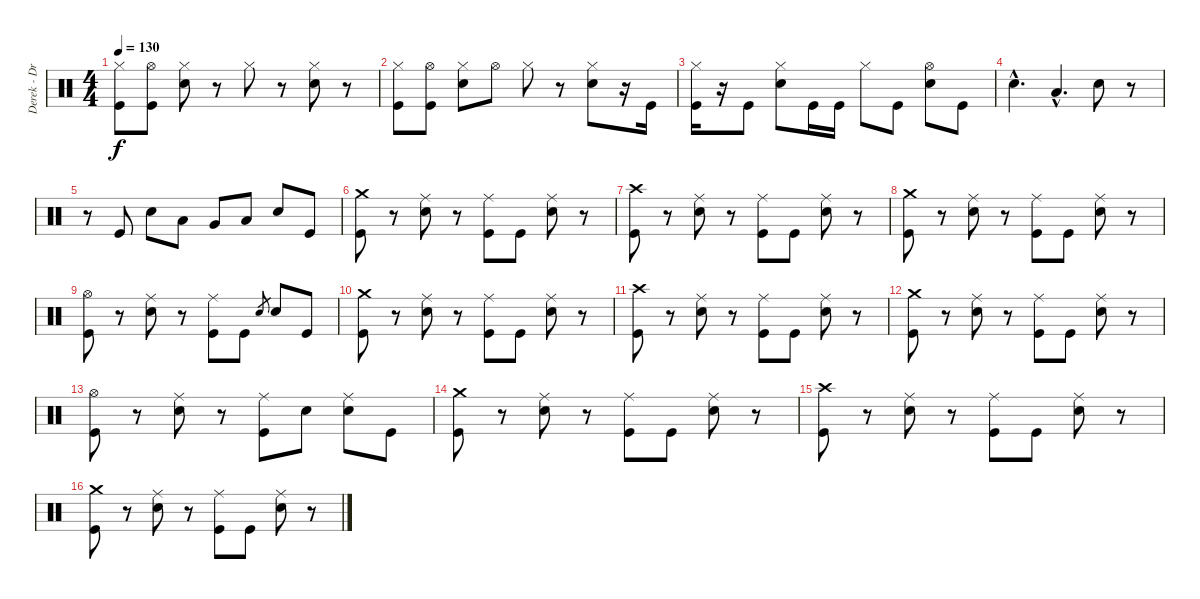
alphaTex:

\track ("Derek - Drums" "Derek - Dr") {instrument percussion}
\staff {score}
\articulation defaults
\ts (4 4)
\tempo 130
\clef neutral
\ks c
("Hi-Hat (closed)" "Kick (hit)").8{dy f} ("Hi-Hat (open)" "Kick (hit)").8 ("Hi-Hat (closed)" "Electric Snare (hit)").8 r.8 "Hi-Hat (closed)".8 r.8 ("Hi-Hat (closed)" "Electric Snare (hit)").8 r.8 |
("Hi-Hat (closed)" "Kick (hit)").8 ("Hi-Hat (open)" "Kick (hit)").8 ("Hi-Hat (closed)" "Electric Snare (hit)").8 "Hi-Hat (open)".8 "Hi-Hat (closed)".8 r.8 ("Hi-Hat (closed)" "Electric Snare (hit)").8 r.16 "Kick (hit)".16 |
("Hi-Hat (closed)" "Kick (hit)").16 r.16 "Kick (hit)".8 ("Hi-Hat (closed)" "Electric Snare (hit)").8 "Kick (hit)".16 "Kick (hit)".16 "Hi-Hat (closed)".8 "Kick (hit)".8 ("Hi-Hat (open)" "Electric Snare (hit)").8 "Kick (hit)".8 |
"Electric Snare (hit)"{hac}.4{d} "Low Floor Tom (hit)"{hac}.4{d} "Electric Snare (hit)".8 r.8 |
r.8 "Kick (hit)".8 "Electric Snare (hit)".8 "Low Tom (hit)".8 "Very Low Tom (hit)".8 "Low Floor Tom (hit)".8 "Electric Snare (hit)".8 "Kick (hit)".8 |
("Crash medium (hit)" "Kick (hit)").8 r.8 ("Ride (middle)" "Electric Snare (hit)").8 r.8 ("Ride (middle)" "Kick (hit)").8 "Kick (hit)".8 ("Ride (middle)" "Electric Snare (hit)").8 r.8 |
("Crash high (hit)" "Kick (hit)").8 r.8 ("Ride (middle)" "Electric Snare (hit)").8 r.8 ("Ride (middle)" "Kick (hit)").8 "Kick (hit)".8 ("Ride (middle)" "Electric Snare (hit)").8 r.8 |
("Crash medium (hit)" "Kick (hit)").8 r.8 ("Ride (middle)" "Electric Snare (hit)").8 r.8 ("Ride (middle)" "Kick (hit)").8 "Kick (hit)".8 ("Ride (middle)" "Electric Snare (hit)").8 r.8 |
("Hi-Hat (open)" "Kick (hit)").8 r.8 ("Ride (middle)" "Electric Snare (hit)").8 r.8 ("Ride (middle)" "Kick (hit)").8 "Kick (hit)".8 "Electric Snare (hit)".8{gr} "Electric Snare (hit)".8 "Kick (hit)".8 |
("Crash medium (hit)" "Kick (hit)").8 r.8 ("Ride (middle)" "Electric Snare (hit)").8 r.8 ("Ride (middle)" "Kick (hit)").8 "Kick (hit)".8 ("Ride (middle)" "Electric Snare (hit)").8 r.8 |
("Crash high (hit)" "Kick (hit)").8 r.8 ("Ride (middle)" "Electric Snare (hit)").8 r.8 ("Ride (middle)" "Kick (hit)").8 "Kick (hit)".8 ("Ride (middle)" "Electric Snare (hit)").8 r.8 |
("Crash medium (hit)" "Kick (hit)").8 r.8 ("Ride (middle)" "Electric Snare (hit)").8 r.8 ("Ride (middle)" "Kick (hit)").8 "Kick (hit)".8 ("Ride (middle)" "Electric Snare (hit)").8 r.8 |
("Hi-Hat (open)" "Kick (hit)").8 r.8 ("Ride (middle)" "Electric Snare (hit)").8 r.8 ("Ride (middle)" "Kick (hit)").8 "Electric Snare (hit)".8 ("Ride (middle)" "Electric Snare (hit)").8 "Kick (hit)".8 |
("Crash medium (hit)" "Kick (hit)").8 r.8 ("Ride (middle)" "Electric Snare (hit)").8 r.8 ("Ride (middle)" "Kick (hit)").8 "Kick (hit)".8 ("Ride (middle)" "Electric Snare (hit)").8 r.8 |
("Crash high (hit)" "Kick (hit)").8 r.8 ("Ride (middle)" "Electric Snare (hit)").8 r.8 ("Ride (middle)" "Kick (hit)").8 "Kick (hit)".8 ("Ride (middle)" "Electric Snare (hit)").8 r.8 |
("Crash medium (hit)" "Kick (hit)").8 r.8 ("Ride (middle)" "Electric Snare (hit)").8 r.8 ("Ride (middle)" "Kick (hit)").8 "Kick (hit)".8 ("Ride (middle)" "Electric Snare (hit)").8 r.8
